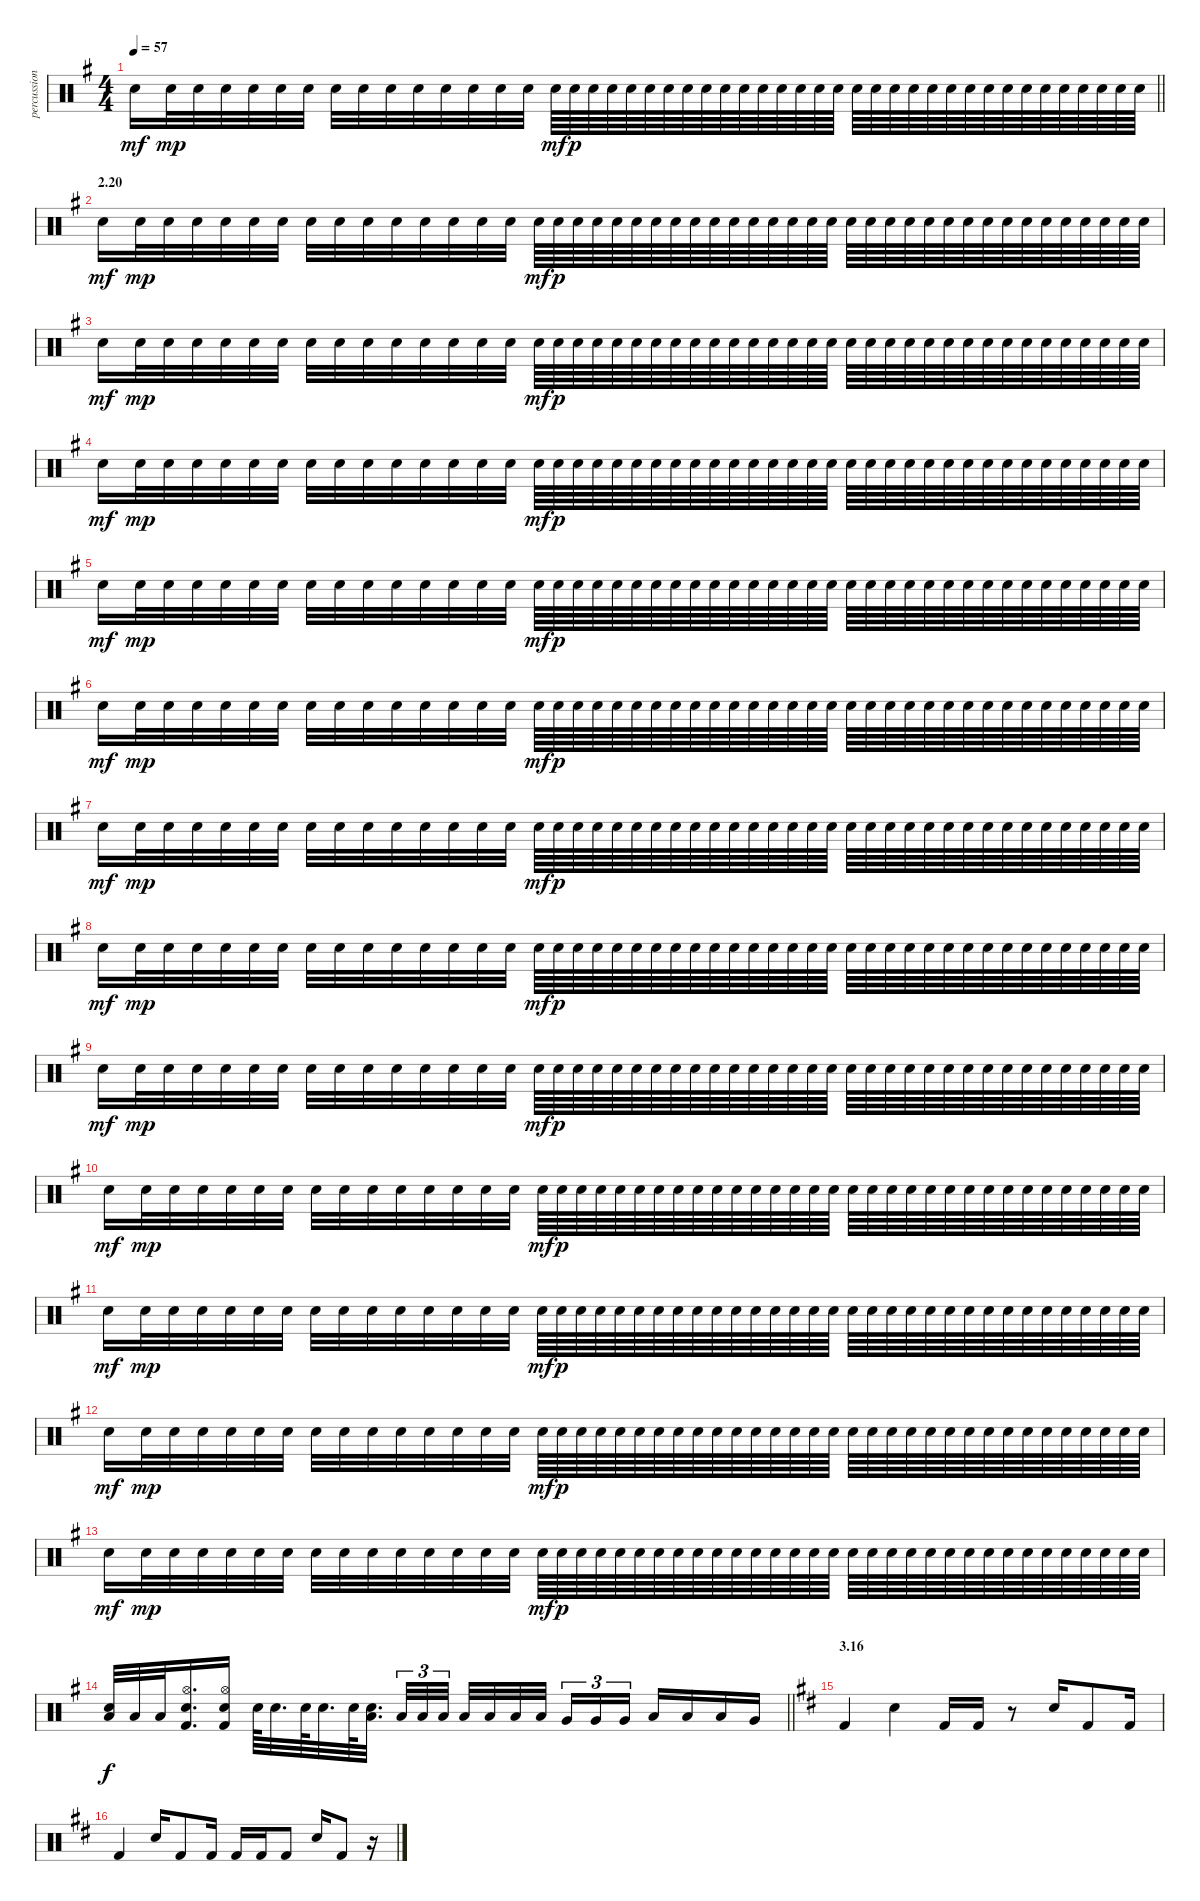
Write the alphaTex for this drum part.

\track ("percussion" "percussion") {instrument percussion}
\staff {score}
\articulation defaults
\ts (4 4)
\tempo 57
\clef neutral
\barLineRight lightlight
\ks g "Electric Snare (hit)".16{dy mf} "Electric Snare (hit)".32{dy mp} "Electric Snare (hit)".32 "Electric Snare (hit)".32 "Electric Snare (hit)".32 "Electric Snare (hit)".32 "Electric Snare (hit)".32 "Electric Snare (hit)".32 "Electric Snare (hit)".32 "Electric Snare (hit)".32 "Electric Snare (hit)".32 "Electric Snare (hit)".32 "Electric Snare (hit)".32 "Electric Snare (hit)".32 "Electric Snare (hit)".32 "Electric Snare (hit)".64{dy mf} "Electric Snare (hit)".64{dy p} "Electric Snare (hit)".64 "Electric Snare (hit)".64 "Electric Snare (hit)".64 "Electric Snare (hit)".64 "Electric Snare (hit)".64 "Electric Snare (hit)".64 "Electric Snare (hit)".64 "Electric Snare (hit)".64 "Electric Snare (hit)".64 "Electric Snare (hit)".64 "Electric Snare (hit)".64 "Electric Snare (hit)".64 "Electric Snare (hit)".64 "Electric Snare (hit)".64 "Electric Snare (hit)".64 "Electric Snare (hit)".64 "Electric Snare (hit)".64 "Electric Snare (hit)".64 "Electric Snare (hit)".64 "Electric Snare (hit)".64 "Electric Snare (hit)".64 "Electric Snare (hit)".64 "Electric Snare (hit)".64 "Electric Snare (hit)".64 "Electric Snare (hit)".64 "Electric Snare (hit)".64 "Electric Snare (hit)".64 "Electric Snare (hit)".64 "Electric Snare (hit)".64 "Electric Snare (hit)".64
|
\section ("" "2.20")
"Electric Snare (hit)".16{dy mf} "Electric Snare (hit)".32{dy mp} "Electric Snare (hit)".32 "Electric Snare (hit)".32 "Electric Snare (hit)".32 "Electric Snare (hit)".32 "Electric Snare (hit)".32 "Electric Snare (hit)".32 "Electric Snare (hit)".32 "Electric Snare (hit)".32 "Electric Snare (hit)".32 "Electric Snare (hit)".32 "Electric Snare (hit)".32 "Electric Snare (hit)".32 "Electric Snare (hit)".32 "Electric Snare (hit)".64{dy mf} "Electric Snare (hit)".64{dy p} "Electric Snare (hit)".64 "Electric Snare (hit)".64 "Electric Snare (hit)".64 "Electric Snare (hit)".64 "Electric Snare (hit)".64 "Electric Snare (hit)".64 "Electric Snare (hit)".64 "Electric Snare (hit)".64 "Electric Snare (hit)".64 "Electric Snare (hit)".64 "Electric Snare (hit)".64 "Electric Snare (hit)".64 "Electric Snare (hit)".64 "Electric Snare (hit)".64 "Electric Snare (hit)".64 "Electric Snare (hit)".64 "Electric Snare (hit)".64 "Electric Snare (hit)".64 "Electric Snare (hit)".64 "Electric Snare (hit)".64 "Electric Snare (hit)".64 "Electric Snare (hit)".64 "Electric Snare (hit)".64 "Electric Snare (hit)".64 "Electric Snare (hit)".64 "Electric Snare (hit)".64 "Electric Snare (hit)".64 "Electric Snare (hit)".64 "Electric Snare (hit)".64 "Electric Snare (hit)".64 |
"Electric Snare (hit)".16{dy mf} "Electric Snare (hit)".32{dy mp} "Electric Snare (hit)".32 "Electric Snare (hit)".32 "Electric Snare (hit)".32 "Electric Snare (hit)".32 "Electric Snare (hit)".32 "Electric Snare (hit)".32 "Electric Snare (hit)".32 "Electric Snare (hit)".32 "Electric Snare (hit)".32 "Electric Snare (hit)".32 "Electric Snare (hit)".32 "Electric Snare (hit)".32 "Electric Snare (hit)".32 "Electric Snare (hit)".64{dy mf} "Electric Snare (hit)".64{dy p} "Electric Snare (hit)".64 "Electric Snare (hit)".64 "Electric Snare (hit)".64 "Electric Snare (hit)".64 "Electric Snare (hit)".64 "Electric Snare (hit)".64 "Electric Snare (hit)".64 "Electric Snare (hit)".64 "Electric Snare (hit)".64 "Electric Snare (hit)".64 "Electric Snare (hit)".64 "Electric Snare (hit)".64 "Electric Snare (hit)".64 "Electric Snare (hit)".64 "Electric Snare (hit)".64 "Electric Snare (hit)".64 "Electric Snare (hit)".64 "Electric Snare (hit)".64 "Electric Snare (hit)".64 "Electric Snare (hit)".64 "Electric Snare (hit)".64 "Electric Snare (hit)".64 "Electric Snare (hit)".64 "Electric Snare (hit)".64 "Electric Snare (hit)".64 "Electric Snare (hit)".64 "Electric Snare (hit)".64 "Electric Snare (hit)".64 "Electric Snare (hit)".64 "Electric Snare (hit)".64 |
"Electric Snare (hit)".16{dy mf} "Electric Snare (hit)".32{dy mp} "Electric Snare (hit)".32 "Electric Snare (hit)".32 "Electric Snare (hit)".32 "Electric Snare (hit)".32 "Electric Snare (hit)".32 "Electric Snare (hit)".32 "Electric Snare (hit)".32 "Electric Snare (hit)".32 "Electric Snare (hit)".32 "Electric Snare (hit)".32 "Electric Snare (hit)".32 "Electric Snare (hit)".32 "Electric Snare (hit)".32 "Electric Snare (hit)".64{dy mf} "Electric Snare (hit)".64{dy p} "Electric Snare (hit)".64 "Electric Snare (hit)".64 "Electric Snare (hit)".64 "Electric Snare (hit)".64 "Electric Snare (hit)".64 "Electric Snare (hit)".64 "Electric Snare (hit)".64 "Electric Snare (hit)".64 "Electric Snare (hit)".64 "Electric Snare (hit)".64 "Electric Snare (hit)".64 "Electric Snare (hit)".64 "Electric Snare (hit)".64 "Electric Snare (hit)".64 "Electric Snare (hit)".64 "Electric Snare (hit)".64 "Electric Snare (hit)".64 "Electric Snare (hit)".64 "Electric Snare (hit)".64 "Electric Snare (hit)".64 "Electric Snare (hit)".64 "Electric Snare (hit)".64 "Electric Snare (hit)".64 "Electric Snare (hit)".64 "Electric Snare (hit)".64 "Electric Snare (hit)".64 "Electric Snare (hit)".64 "Electric Snare (hit)".64 "Electric Snare (hit)".64 "Electric Snare (hit)".64 |
"Electric Snare (hit)".16{dy mf} "Electric Snare (hit)".32{dy mp} "Electric Snare (hit)".32 "Electric Snare (hit)".32 "Electric Snare (hit)".32 "Electric Snare (hit)".32 "Electric Snare (hit)".32 "Electric Snare (hit)".32 "Electric Snare (hit)".32 "Electric Snare (hit)".32 "Electric Snare (hit)".32 "Electric Snare (hit)".32 "Electric Snare (hit)".32 "Electric Snare (hit)".32 "Electric Snare (hit)".32 "Electric Snare (hit)".64{dy mf} "Electric Snare (hit)".64{dy p} "Electric Snare (hit)".64 "Electric Snare (hit)".64 "Electric Snare (hit)".64 "Electric Snare (hit)".64 "Electric Snare (hit)".64 "Electric Snare (hit)".64 "Electric Snare (hit)".64 "Electric Snare (hit)".64 "Electric Snare (hit)".64 "Electric Snare (hit)".64 "Electric Snare (hit)".64 "Electric Snare (hit)".64 "Electric Snare (hit)".64 "Electric Snare (hit)".64 "Electric Snare (hit)".64 "Electric Snare (hit)".64 "Electric Snare (hit)".64 "Electric Snare (hit)".64 "Electric Snare (hit)".64 "Electric Snare (hit)".64 "Electric Snare (hit)".64 "Electric Snare (hit)".64 "Electric Snare (hit)".64 "Electric Snare (hit)".64 "Electric Snare (hit)".64 "Electric Snare (hit)".64 "Electric Snare (hit)".64 "Electric Snare (hit)".64 "Electric Snare (hit)".64 "Electric Snare (hit)".64 |
"Electric Snare (hit)".16{dy mf} "Electric Snare (hit)".32{dy mp} "Electric Snare (hit)".32 "Electric Snare (hit)".32 "Electric Snare (hit)".32 "Electric Snare (hit)".32 "Electric Snare (hit)".32 "Electric Snare (hit)".32 "Electric Snare (hit)".32 "Electric Snare (hit)".32 "Electric Snare (hit)".32 "Electric Snare (hit)".32 "Electric Snare (hit)".32 "Electric Snare (hit)".32 "Electric Snare (hit)".32 "Electric Snare (hit)".64{dy mf} "Electric Snare (hit)".64{dy p} "Electric Snare (hit)".64 "Electric Snare (hit)".64 "Electric Snare (hit)".64 "Electric Snare (hit)".64 "Electric Snare (hit)".64 "Electric Snare (hit)".64 "Electric Snare (hit)".64 "Electric Snare (hit)".64 "Electric Snare (hit)".64 "Electric Snare (hit)".64 "Electric Snare (hit)".64 "Electric Snare (hit)".64 "Electric Snare (hit)".64 "Electric Snare (hit)".64 "Electric Snare (hit)".64 "Electric Snare (hit)".64 "Electric Snare (hit)".64 "Electric Snare (hit)".64 "Electric Snare (hit)".64 "Electric Snare (hit)".64 "Electric Snare (hit)".64 "Electric Snare (hit)".64 "Electric Snare (hit)".64 "Electric Snare (hit)".64 "Electric Snare (hit)".64 "Electric Snare (hit)".64 "Electric Snare (hit)".64 "Electric Snare (hit)".64 "Electric Snare (hit)".64 "Electric Snare (hit)".64 |
"Electric Snare (hit)".16{dy mf} "Electric Snare (hit)".32{dy mp} "Electric Snare (hit)".32 "Electric Snare (hit)".32 "Electric Snare (hit)".32 "Electric Snare (hit)".32 "Electric Snare (hit)".32 "Electric Snare (hit)".32 "Electric Snare (hit)".32 "Electric Snare (hit)".32 "Electric Snare (hit)".32 "Electric Snare (hit)".32 "Electric Snare (hit)".32 "Electric Snare (hit)".32 "Electric Snare (hit)".32 "Electric Snare (hit)".64{dy mf} "Electric Snare (hit)".64{dy p} "Electric Snare (hit)".64 "Electric Snare (hit)".64 "Electric Snare (hit)".64 "Electric Snare (hit)".64 "Electric Snare (hit)".64 "Electric Snare (hit)".64 "Electric Snare (hit)".64 "Electric Snare (hit)".64 "Electric Snare (hit)".64 "Electric Snare (hit)".64 "Electric Snare (hit)".64 "Electric Snare (hit)".64 "Electric Snare (hit)".64 "Electric Snare (hit)".64 "Electric Snare (hit)".64 "Electric Snare (hit)".64 "Electric Snare (hit)".64 "Electric Snare (hit)".64 "Electric Snare (hit)".64 "Electric Snare (hit)".64 "Electric Snare (hit)".64 "Electric Snare (hit)".64 "Electric Snare (hit)".64 "Electric Snare (hit)".64 "Electric Snare (hit)".64 "Electric Snare (hit)".64 "Electric Snare (hit)".64 "Electric Snare (hit)".64 "Electric Snare (hit)".64 "Electric Snare (hit)".64 |
"Electric Snare (hit)".16{dy mf} "Electric Snare (hit)".32{dy mp} "Electric Snare (hit)".32 "Electric Snare (hit)".32 "Electric Snare (hit)".32 "Electric Snare (hit)".32 "Electric Snare (hit)".32 "Electric Snare (hit)".32 "Electric Snare (hit)".32 "Electric Snare (hit)".32 "Electric Snare (hit)".32 "Electric Snare (hit)".32 "Electric Snare (hit)".32 "Electric Snare (hit)".32 "Electric Snare (hit)".32 "Electric Snare (hit)".64{dy mf} "Electric Snare (hit)".64{dy p} "Electric Snare (hit)".64 "Electric Snare (hit)".64 "Electric Snare (hit)".64 "Electric Snare (hit)".64 "Electric Snare (hit)".64 "Electric Snare (hit)".64 "Electric Snare (hit)".64 "Electric Snare (hit)".64 "Electric Snare (hit)".64 "Electric Snare (hit)".64 "Electric Snare (hit)".64 "Electric Snare (hit)".64 "Electric Snare (hit)".64 "Electric Snare (hit)".64 "Electric Snare (hit)".64 "Electric Snare (hit)".64 "Electric Snare (hit)".64 "Electric Snare (hit)".64 "Electric Snare (hit)".64 "Electric Snare (hit)".64 "Electric Snare (hit)".64 "Electric Snare (hit)".64 "Electric Snare (hit)".64 "Electric Snare (hit)".64 "Electric Snare (hit)".64 "Electric Snare (hit)".64 "Electric Snare (hit)".64 "Electric Snare (hit)".64 "Electric Snare (hit)".64 "Electric Snare (hit)".64 |
"Electric Snare (hit)".16{dy mf} "Electric Snare (hit)".32{dy mp} "Electric Snare (hit)".32 "Electric Snare (hit)".32 "Electric Snare (hit)".32 "Electric Snare (hit)".32 "Electric Snare (hit)".32 "Electric Snare (hit)".32 "Electric Snare (hit)".32 "Electric Snare (hit)".32 "Electric Snare (hit)".32 "Electric Snare (hit)".32 "Electric Snare (hit)".32 "Electric Snare (hit)".32 "Electric Snare (hit)".32 "Electric Snare (hit)".64{dy mf} "Electric Snare (hit)".64{dy p} "Electric Snare (hit)".64 "Electric Snare (hit)".64 "Electric Snare (hit)".64 "Electric Snare (hit)".64 "Electric Snare (hit)".64 "Electric Snare (hit)".64 "Electric Snare (hit)".64 "Electric Snare (hit)".64 "Electric Snare (hit)".64 "Electric Snare (hit)".64 "Electric Snare (hit)".64 "Electric Snare (hit)".64 "Electric Snare (hit)".64 "Electric Snare (hit)".64 "Electric Snare (hit)".64 "Electric Snare (hit)".64 "Electric Snare (hit)".64 "Electric Snare (hit)".64 "Electric Snare (hit)".64 "Electric Snare (hit)".64 "Electric Snare (hit)".64 "Electric Snare (hit)".64 "Electric Snare (hit)".64 "Electric Snare (hit)".64 "Electric Snare (hit)".64 "Electric Snare (hit)".64 "Electric Snare (hit)".64 "Electric Snare (hit)".64 "Electric Snare (hit)".64 "Electric Snare (hit)".64 |
"Electric Snare (hit)".16{dy mf} "Electric Snare (hit)".32{dy mp} "Electric Snare (hit)".32 "Electric Snare (hit)".32 "Electric Snare (hit)".32 "Electric Snare (hit)".32 "Electric Snare (hit)".32 "Electric Snare (hit)".32 "Electric Snare (hit)".32 "Electric Snare (hit)".32 "Electric Snare (hit)".32 "Electric Snare (hit)".32 "Electric Snare (hit)".32 "Electric Snare (hit)".32 "Electric Snare (hit)".32 "Electric Snare (hit)".64{dy mf} "Electric Snare (hit)".64{dy p} "Electric Snare (hit)".64 "Electric Snare (hit)".64 "Electric Snare (hit)".64 "Electric Snare (hit)".64 "Electric Snare (hit)".64 "Electric Snare (hit)".64 "Electric Snare (hit)".64 "Electric Snare (hit)".64 "Electric Snare (hit)".64 "Electric Snare (hit)".64 "Electric Snare (hit)".64 "Electric Snare (hit)".64 "Electric Snare (hit)".64 "Electric Snare (hit)".64 "Electric Snare (hit)".64 "Electric Snare (hit)".64 "Electric Snare (hit)".64 "Electric Snare (hit)".64 "Electric Snare (hit)".64 "Electric Snare (hit)".64 "Electric Snare (hit)".64 "Electric Snare (hit)".64 "Electric Snare (hit)".64 "Electric Snare (hit)".64 "Electric Snare (hit)".64 "Electric Snare (hit)".64 "Electric Snare (hit)".64 "Electric Snare (hit)".64 "Electric Snare (hit)".64 "Electric Snare (hit)".64 |
"Electric Snare (hit)".16{dy mf} "Electric Snare (hit)".32{dy mp} "Electric Snare (hit)".32 "Electric Snare (hit)".32 "Electric Snare (hit)".32 "Electric Snare (hit)".32 "Electric Snare (hit)".32 "Electric Snare (hit)".32 "Electric Snare (hit)".32 "Electric Snare (hit)".32 "Electric Snare (hit)".32 "Electric Snare (hit)".32 "Electric Snare (hit)".32 "Electric Snare (hit)".32 "Electric Snare (hit)".32 "Electric Snare (hit)".64{dy mf} "Electric Snare (hit)".64{dy p} "Electric Snare (hit)".64 "Electric Snare (hit)".64 "Electric Snare (hit)".64 "Electric Snare (hit)".64 "Electric Snare (hit)".64 "Electric Snare (hit)".64 "Electric Snare (hit)".64 "Electric Snare (hit)".64 "Electric Snare (hit)".64 "Electric Snare (hit)".64 "Electric Snare (hit)".64 "Electric Snare (hit)".64 "Electric Snare (hit)".64 "Electric Snare (hit)".64 "Electric Snare (hit)".64 "Electric Snare (hit)".64 "Electric Snare (hit)".64 "Electric Snare (hit)".64 "Electric Snare (hit)".64 "Electric Snare (hit)".64 "Electric Snare (hit)".64 "Electric Snare (hit)".64 "Electric Snare (hit)".64 "Electric Snare (hit)".64 "Electric Snare (hit)".64 "Electric Snare (hit)".64 "Electric Snare (hit)".64 "Electric Snare (hit)".64 "Electric Snare (hit)".64 "Electric Snare (hit)".64 |
"Electric Snare (hit)".16{dy mf} "Electric Snare (hit)".32{dy mp} "Electric Snare (hit)".32 "Electric Snare (hit)".32 "Electric Snare (hit)".32 "Electric Snare (hit)".32 "Electric Snare (hit)".32 "Electric Snare (hit)".32 "Electric Snare (hit)".32 "Electric Snare (hit)".32 "Electric Snare (hit)".32 "Electric Snare (hit)".32 "Electric Snare (hit)".32 "Electric Snare (hit)".32 "Electric Snare (hit)".32 "Electric Snare (hit)".64{dy mf} "Electric Snare (hit)".64{dy p} "Electric Snare (hit)".64 "Electric Snare (hit)".64 "Electric Snare (hit)".64 "Electric Snare (hit)".64 "Electric Snare (hit)".64 "Electric Snare (hit)".64 "Electric Snare (hit)".64 "Electric Snare (hit)".64 "Electric Snare (hit)".64 "Electric Snare (hit)".64 "Electric Snare (hit)".64 "Electric Snare (hit)".64 "Electric Snare (hit)".64 "Electric Snare (hit)".64 "Electric Snare (hit)".64 "Electric Snare (hit)".64 "Electric Snare (hit)".64 "Electric Snare (hit)".64 "Electric Snare (hit)".64 "Electric Snare (hit)".64 "Electric Snare (hit)".64 "Electric Snare (hit)".64 "Electric Snare (hit)".64 "Electric Snare (hit)".64 "Electric Snare (hit)".64 "Electric Snare (hit)".64 "Electric Snare (hit)".64 "Electric Snare (hit)".64 "Electric Snare (hit)".64 "Electric Snare (hit)".64 |
"Electric Snare (hit)".16{dy mf} "Electric Snare (hit)".32{dy mp} "Electric Snare (hit)".32 "Electric Snare (hit)".32 "Electric Snare (hit)".32 "Electric Snare (hit)".32 "Electric Snare (hit)".32 "Electric Snare (hit)".32 "Electric Snare (hit)".32 "Electric Snare (hit)".32 "Electric Snare (hit)".32 "Electric Snare (hit)".32 "Electric Snare (hit)".32 "Electric Snare (hit)".32 "Electric Snare (hit)".32 "Electric Snare (hit)".64{dy mf} "Electric Snare (hit)".64{dy p} "Electric Snare (hit)".64 "Electric Snare (hit)".64 "Electric Snare (hit)".64 "Electric Snare (hit)".64 "Electric Snare (hit)".64 "Electric Snare (hit)".64 "Electric Snare (hit)".64 "Electric Snare (hit)".64 "Electric Snare (hit)".64 "Electric Snare (hit)".64 "Electric Snare (hit)".64 "Electric Snare (hit)".64 "Electric Snare (hit)".64 "Electric Snare (hit)".64 "Electric Snare (hit)".64 "Electric Snare (hit)".64 "Electric Snare (hit)".64 "Electric Snare (hit)".64 "Electric Snare (hit)".64 "Electric Snare (hit)".64 "Electric Snare (hit)".64 "Electric Snare (hit)".64 "Electric Snare (hit)".64 "Electric Snare (hit)".64 "Electric Snare (hit)".64 "Electric Snare (hit)".64 "Electric Snare (hit)".64 "Electric Snare (hit)".64 "Electric Snare (hit)".64 "Electric Snare (hit)".64 |
\barLineRight lightlight
("Low Tom (hit)" "Electric Snare (hit)").32{dy f} "Low Tom (hit)".32 "Low Tom (hit)".32 ("Hi-Hat (open)" "Electric Snare (hit)" "Kick (hit) 2").16{d} ("Hi-Hat (open)" "Electric Snare (hit)" "Kick (hit) 2").16 "Electric Snare (hit)".64 "Electric Snare (hit)".32{d} "Electric Snare (hit)".64 "Electric Snare (hit)".32{d} "Electric Snare (hit)".64 ("Low Tom (hit)" "Electric Snare (hit)").32{d beam splitsecondary} "Low Tom (hit)".32{tu (3 2)} "Low Tom (hit)".32{tu (3 2)} "Low Tom (hit)".32{tu (3 2)} "Low Tom (hit)".32 "Low Tom (hit)".32 "Low Tom (hit)".32 "Low Tom (hit)".32{beam splitsecondary} "Very Low Tom (hit)".16{tu (3 2)} "Very Low Tom (hit)".16{tu (3 2)} "Very Low Tom (hit)".16{tu (3 2)} "Low Floor Tom (hit)".16 "Low Floor Tom (hit)".16 "Low Floor Tom (hit)".16 "Very Low Tom (hit)".16 |
\section ("" "3.16")
\ks d "Kick (hit) 2".4 "Electric Snare (hit)".4 "Kick (hit) 2".16 "Kick (hit) 2".16
r.8 "Electric Snare (hit)".16 "Kick (hit) 2".8 "Kick (hit) 2".16 |
"Kick (hit) 2".4 "Electric Snare (hit)".16 "Kick (hit) 2".8 "Kick (hit) 2".16 "Kick (hit) 2".16 "Kick (hit) 2".16 "Kick (hit) 2".8 "Electric Snare (hit)".16 "Kick (hit) 2".8 r.16
